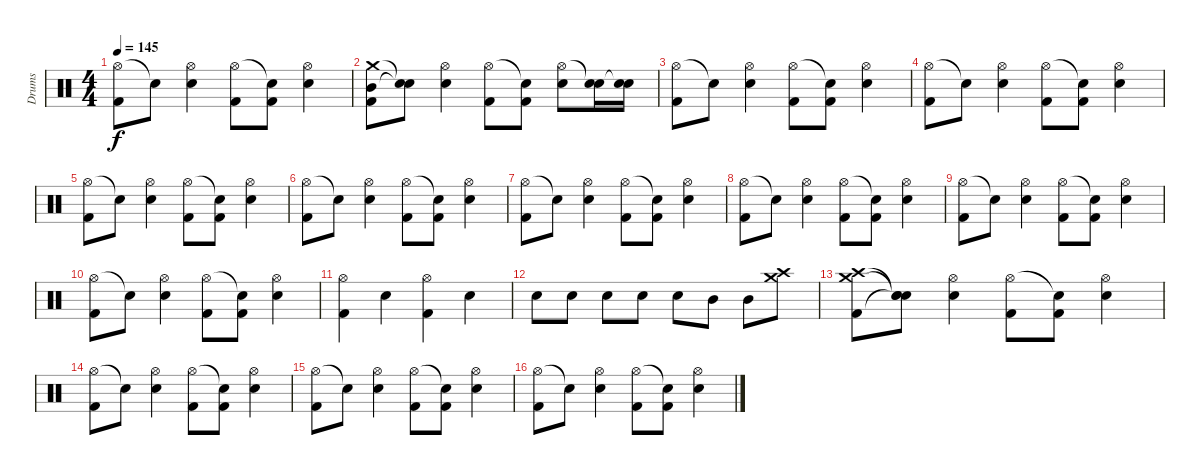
\track ("Drums" "Drums") {instrument percussion}
\staff {score}
\articulation defaults
\ts (4 4)
\tempo 145
\clef neutral
\ks c
("Hi-Hat (open)" "Kick (hit) 2").8{dy f} "Snare (hit)"{t}.8 ("Hi-Hat (open)" "Electric Snare (hit)").4 ("Hi-Hat (open)" "Kick (hit) 2").8 ("Snare (hit)"{t} "Kick (hit) 2").8 ("Hi-Hat (open)" "Electric Snare (hit)").4 |
("Mid Tom (hit)" "Crash medium (hit)" "Kick (hit) 2").8 ("Snare (hit)"{t} "Snare (hit)"{t}).8 ("Hi-Hat (open)" "Electric Snare (hit)").4 ("Hi-Hat (open)" "Kick (hit) 2").8 ("Snare (hit)"{t} "Kick (hit) 2").8 ("Hi-Hat (open)" "Electric Snare (hit)").8 ("Snare (hit)"{t} "Electric Snare (hit)").16 ("Snare (hit)"{t} "Electric Snare (hit)").16 |
("Hi-Hat (open)" "Kick (hit) 2").8 "Snare (hit)"{t}.8 ("Hi-Hat (open)" "Electric Snare (hit)").4 ("Hi-Hat (open)" "Kick (hit) 2").8 ("Snare (hit)"{t} "Kick (hit) 2").8 ("Hi-Hat (open)" "Electric Snare (hit)").4 |
("Hi-Hat (open)" "Kick (hit) 2").8 "Snare (hit)"{t}.8 ("Hi-Hat (open)" "Electric Snare (hit)").4 ("Hi-Hat (open)" "Kick (hit) 2").8 ("Snare (hit)"{t} "Kick (hit) 2").8 ("Hi-Hat (open)" "Electric Snare (hit)").4 |
("Hi-Hat (open)" "Kick (hit) 2").8 "Snare (hit)"{t}.8 ("Hi-Hat (open)" "Electric Snare (hit)").4 ("Hi-Hat (open)" "Kick (hit) 2").8 ("Snare (hit)"{t} "Kick (hit) 2").8 ("Hi-Hat (open)" "Electric Snare (hit)").4 |
("Hi-Hat (open)" "Kick (hit) 2").8 "Snare (hit)"{t}.8 ("Hi-Hat (open)" "Electric Snare (hit)").4 ("Hi-Hat (open)" "Kick (hit) 2").8 ("Snare (hit)"{t} "Kick (hit) 2").8 ("Hi-Hat (open)" "Electric Snare (hit)").4 |
("Hi-Hat (open)" "Kick (hit) 2").8 "Snare (hit)"{t}.8 ("Hi-Hat (open)" "Electric Snare (hit)").4 ("Hi-Hat (open)" "Kick (hit) 2").8 ("Snare (hit)"{t} "Kick (hit) 2").8 ("Hi-Hat (open)" "Electric Snare (hit)").4 |
("Hi-Hat (open)" "Kick (hit) 2").8 "Snare (hit)"{t}.8 ("Hi-Hat (open)" "Electric Snare (hit)").4 ("Hi-Hat (open)" "Kick (hit) 2").8 ("Snare (hit)"{t} "Kick (hit) 2").8 ("Hi-Hat (open)" "Electric Snare (hit)").4 |
("Hi-Hat (open)" "Kick (hit) 2").8 "Snare (hit)"{t}.8 ("Hi-Hat (open)" "Electric Snare (hit)").4 ("Hi-Hat (open)" "Kick (hit) 2").8 ("Snare (hit)"{t} "Kick (hit) 2").8 ("Hi-Hat (open)" "Electric Snare (hit)").4 |
("Hi-Hat (open)" "Kick (hit) 2").8 "Snare (hit)"{t}.8 ("Hi-Hat (open)" "Electric Snare (hit)").4 ("Hi-Hat (open)" "Kick (hit) 2").8 ("Snare (hit)"{t} "Kick (hit) 2").8 ("Hi-Hat (open)" "Electric Snare (hit)").4 |
("Hi-Hat (open)" "Kick (hit) 2").4 "Electric Snare (hit)".4 ("Hi-Hat (open)" "Kick (hit) 2").4 "Electric Snare (hit)".4 |
"Electric Snare (hit)".8 "Electric Snare (hit)".8 "Electric Snare (hit)".8 "Electric Snare (hit)".8 "Electric Snare (hit)".8 "Mid Tom (hit)".8 "Mid Tom (hit)".8 ("Crash medium (hit)" "Crash high (hit)").8 |
("Crash medium (hit)" "Crash high (hit)" "Kick (hit) 2").8 ("Snare (hit)"{t} "Snare (hit)"{t} "Snare (hit)"{t}).8 ("Hi-Hat (open)" "Electric Snare (hit)").4 ("Hi-Hat (open)" "Kick (hit) 2").8 ("Snare (hit)"{t} "Kick (hit) 2").8 ("Hi-Hat (open)" "Electric Snare (hit)").4 |
("Hi-Hat (open)" "Kick (hit) 2").8 "Snare (hit)"{t}.8 ("Hi-Hat (open)" "Electric Snare (hit)").4 ("Hi-Hat (open)" "Kick (hit) 2").8 ("Snare (hit)"{t} "Kick (hit) 2").8 ("Hi-Hat (open)" "Electric Snare (hit)").4 |
("Hi-Hat (open)" "Kick (hit) 2").8 "Snare (hit)"{t}.8 ("Hi-Hat (open)" "Electric Snare (hit)").4 ("Hi-Hat (open)" "Kick (hit) 2").8 ("Snare (hit)"{t} "Kick (hit) 2").8 ("Hi-Hat (open)" "Electric Snare (hit)").4 |
("Hi-Hat (open)" "Kick (hit) 2").8 "Snare (hit)"{t}.8 ("Hi-Hat (open)" "Electric Snare (hit)").4 ("Hi-Hat (open)" "Kick (hit) 2").8 ("Snare (hit)"{t} "Kick (hit) 2").8 ("Hi-Hat (open)" "Electric Snare (hit)").4
